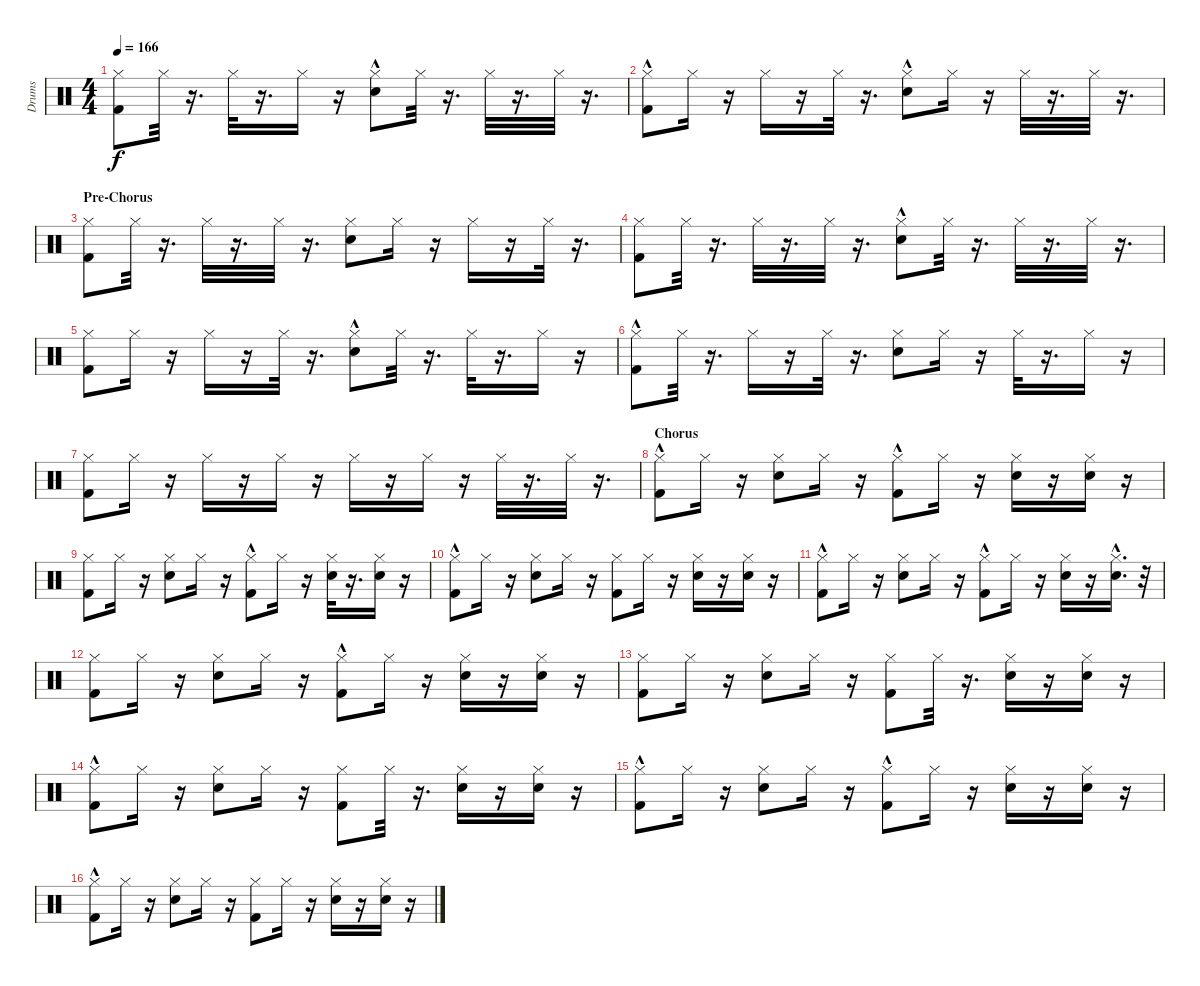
\track ("Drums" "Drums") {instrument percussion}
\staff {score}
\articulation defaults
\ts (4 4)
\tempo 166
\clef neutral
\ks c
("Kick (hit) 2" "Hi-Hat (closed)").8{dy f} "Hi-Hat (closed)".32 r.16{d} "Hi-Hat (closed)".32 r.16{d} "Hi-Hat (closed)".16 r.16 ("Hi-Hat (closed)" "Snare (hit) 2"{hac}).8 "Hi-Hat (closed)".32 r.16{d} "Hi-Hat (closed)".32 r.16{d} "Hi-Hat (closed)".32 r.16{d} |
("Kick (hit) 2"{hac} "Hi-Hat (closed)").8 "Hi-Hat (closed)".16 r.16 "Hi-Hat (closed)".16 r.16 "Hi-Hat (closed)".32 r.16{d} ("Hi-Hat (closed)" "Snare (hit) 2"{hac}).8 "Hi-Hat (closed)".16 r.16 "Hi-Hat (closed)".32 r.16{d} "Hi-Hat (closed)".32 r.16{d} |
\section ("" "Pre-Chorus")
("Kick (hit) 2" "Hi-Hat (closed)").8 "Hi-Hat (closed)".32 r.16{d} "Hi-Hat (closed)".32 r.16{d} "Hi-Hat (closed)".32 r.16{d} ("Hi-Hat (closed)" "Snare (hit) 2").8 "Hi-Hat (closed)".16 r.16 "Hi-Hat (closed)".16 r.16 "Hi-Hat (closed)".32 r.16{d} |
("Kick (hit) 2" "Hi-Hat (closed)").8 "Hi-Hat (closed)".32 r.16{d} "Hi-Hat (closed)".32 r.16{d} "Hi-Hat (closed)".32 r.16{d} ("Hi-Hat (closed)" "Snare (hit) 2"{hac}).8 "Hi-Hat (closed)".32 r.16{d} "Hi-Hat (closed)".32 r.16{d} "Hi-Hat (closed)".32 r.16{d} |
("Kick (hit) 2" "Hi-Hat (closed)").8 "Hi-Hat (closed)".16 r.16 "Hi-Hat (closed)".16 r.16 "Hi-Hat (closed)".32 r.16{d} ("Hi-Hat (closed)" "Snare (hit) 2"{hac}).8 "Hi-Hat (closed)".32 r.16{d} "Hi-Hat (closed)".32 r.16{d} "Hi-Hat (closed)".16 r.16 |
("Kick (hit) 2"{hac} "Hi-Hat (closed)").8 "Hi-Hat (closed)".32 r.16{d} "Hi-Hat (closed)".16 r.16 "Hi-Hat (closed)".32 r.16{d} ("Hi-Hat (closed)" "Snare (hit) 2").8 "Hi-Hat (closed)".16 r.16 "Hi-Hat (closed)".32 r.16{d} "Hi-Hat (closed)".16 r.16 |
("Kick (hit) 2" "Hi-Hat (closed)").8 "Hi-Hat (closed)".16 r.16 "Hi-Hat (closed)".16 r.16 "Hi-Hat (closed)".16 r.16 "Hi-Hat (closed)".16 r.16 "Hi-Hat (closed)".16 r.16 "Hi-Hat (closed)".32 r.16{d} "Hi-Hat (closed)".32 r.16{d} |
\section ("" "Chorus")
("Kick (hit) 2"{hac} "Hi-Hat (closed)").8 "Hi-Hat (closed)".16 r.16 ("Hi-Hat (closed)" "Snare (hit) 2").8 "Hi-Hat (closed)".16 r.16 ("Kick (hit) 2"{hac} "Hi-Hat (closed)").8 "Hi-Hat (closed)".16 r.16 ("Hi-Hat (closed)" "Snare (hit) 2").16 r.16 ("Hi-Hat (closed)" "Snare (hit) 2").16 r.16 |
("Kick (hit) 2" "Hi-Hat (closed)").8 "Hi-Hat (closed)".16 r.16 ("Hi-Hat (closed)" "Snare (hit) 2").8 "Hi-Hat (closed)".16 r.16 ("Kick (hit) 2"{hac} "Hi-Hat (closed)").8 "Hi-Hat (closed)".16 r.16 ("Hi-Hat (closed)" "Snare (hit) 2").32 r.16{d} ("Hi-Hat (closed)" "Snare (hit) 2").16 r.16 |
("Kick (hit) 2"{hac} "Hi-Hat (closed)").8 "Hi-Hat (closed)".16 r.16 ("Hi-Hat (closed)" "Snare (hit) 2").8 "Hi-Hat (closed)".16 r.16 ("Kick (hit) 2" "Hi-Hat (closed)").8 "Hi-Hat (closed)".16 r.16 ("Hi-Hat (closed)" "Snare (hit) 2").16 r.16 ("Hi-Hat (closed)" "Snare (hit) 2").16 r.16 |
("Kick (hit) 2"{hac} "Hi-Hat (closed)").8 "Hi-Hat (closed)".16 r.16 ("Hi-Hat (closed)" "Snare (hit) 2").8 "Hi-Hat (closed)".16 r.16 ("Kick (hit) 2"{hac} "Hi-Hat (closed)").8 "Hi-Hat (closed)".16 r.16 ("Hi-Hat (closed)" "Snare (hit) 2").16 r.16 ("Hi-Hat (closed)" "Snare (hit) 2"{hac}).16{d} r.32 |
("Kick (hit) 2" "Hi-Hat (closed)").8 "Hi-Hat (closed)".16 r.16 ("Hi-Hat (closed)" "Snare (hit) 2").8 "Hi-Hat (closed)".16 r.16 ("Kick (hit) 2"{hac} "Hi-Hat (closed)").8 "Hi-Hat (closed)".16 r.16 ("Hi-Hat (closed)" "Snare (hit) 2").16 r.16 ("Hi-Hat (closed)" "Snare (hit) 2").16 r.16 |
("Kick (hit) 2" "Hi-Hat (closed)").8 "Hi-Hat (closed)".16 r.16 ("Hi-Hat (closed)" "Snare (hit) 2").8 "Hi-Hat (closed)".16 r.16 ("Kick (hit) 2" "Hi-Hat (closed)").8 "Hi-Hat (closed)".32 r.16{d} ("Hi-Hat (closed)" "Snare (hit) 2").16 r.16 ("Hi-Hat (closed)" "Snare (hit) 2").16 r.16 |
("Kick (hit) 2"{hac} "Hi-Hat (closed)").8 "Hi-Hat (closed)".16 r.16 ("Hi-Hat (closed)" "Snare (hit) 2").8 "Hi-Hat (closed)".16 r.16 ("Kick (hit) 2" "Hi-Hat (closed)").8 "Hi-Hat (closed)".32 r.16{d} ("Hi-Hat (closed)" "Snare (hit) 2").16 r.16 ("Hi-Hat (closed)" "Snare (hit) 2").16 r.16 |
("Kick (hit) 2"{hac} "Hi-Hat (closed)").8 "Hi-Hat (closed)".16 r.16 ("Hi-Hat (closed)" "Snare (hit) 2").8 "Hi-Hat (closed)".16 r.16 ("Kick (hit) 2"{hac} "Hi-Hat (closed)").8 "Hi-Hat (closed)".16 r.16 ("Hi-Hat (closed)" "Snare (hit) 2").16 r.16 ("Hi-Hat (closed)" "Snare (hit) 2").16 r.16 |
("Kick (hit) 2"{hac} "Hi-Hat (closed)").8 "Hi-Hat (closed)".16 r.16 ("Hi-Hat (closed)" "Snare (hit) 2").8 "Hi-Hat (closed)".16 r.16 ("Kick (hit) 2" "Hi-Hat (closed)").8 "Hi-Hat (closed)".16 r.16 ("Hi-Hat (closed)" "Snare (hit) 2").16 r.16 ("Hi-Hat (closed)" "Snare (hit) 2").16 r.16
